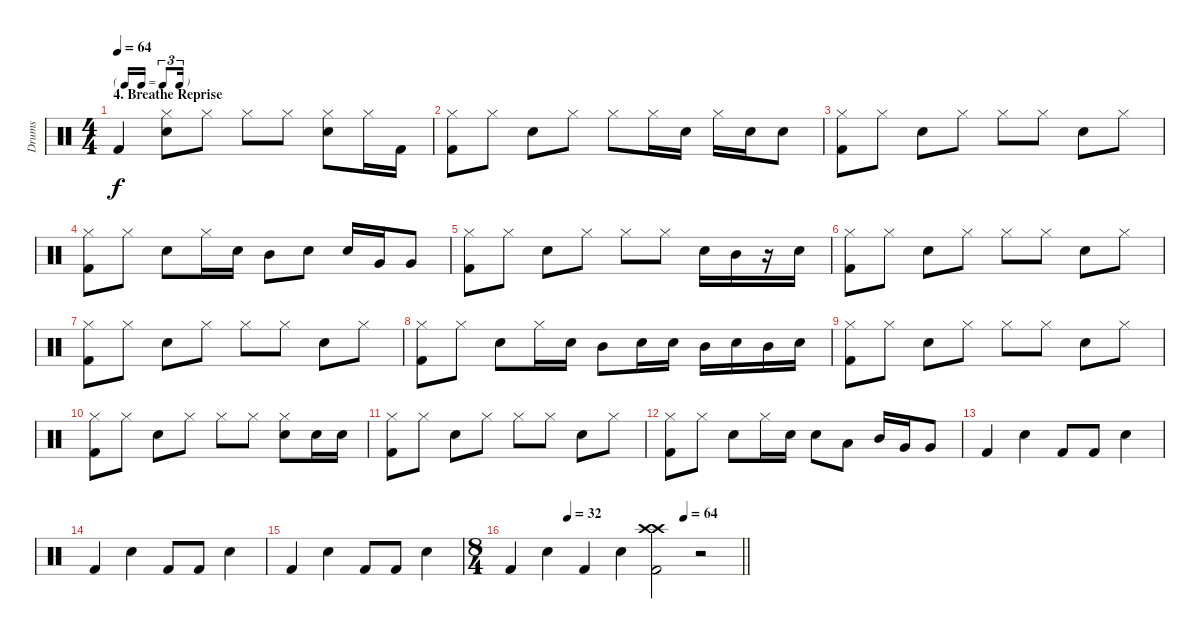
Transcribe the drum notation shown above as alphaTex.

\track ("Drums" "Drums") {instrument percussion}
\staff {score}
\articulation defaults
\ts (4 4)
\tf triplet16th
\section ("" "4. Breathe Reprise")
\tempo 64
\clef neutral
\ks c "Kick (hit) 2".4{dy f}
("Snare (hit) 2" "Hi-Hat (closed)").8 "Hi-Hat (closed)".8 "Hi-Hat (closed)".8 "Hi-Hat (closed)".8 ("Snare (hit) 2" "Hi-Hat (closed)").8 "Hi-Hat (closed)".16 "Kick (hit) 2".16 |
("Hi-Hat (closed)" "Kick (hit) 2").8 "Hi-Hat (closed)".8 "Snare (hit) 2".8 "Hi-Hat (closed)".8 "Hi-Hat (closed)".8 "Hi-Hat (closed)".16 "Snare (hit) 2".16 "Hi-Hat (closed)".16 "Snare (hit) 2".16 "Snare (hit) 2".8 |
("Hi-Hat (closed)" "Kick (hit) 2").8 "Hi-Hat (closed)".8 "Snare (hit) 2".8 "Hi-Hat (closed)".8 "Hi-Hat (closed)".8 "Hi-Hat (closed)".8 "Snare (hit) 2".8 "Hi-Hat (closed)".8 |
("Hi-Hat (closed)" "Kick (hit) 2").8 "Hi-Hat (closed)".8 "Snare (hit) 2".8 "Hi-Hat (closed)".16 "Snare (hit) 2".16 "Mid Tom (hit)".8 "Snare (hit) 2".8 "Snare (hit) 2".16 "Very Low Tom (hit)".16 "Very Low Tom (hit)".8 |
("Hi-Hat (closed)" "Kick (hit) 2").8 "Hi-Hat (closed)".8 "Snare (hit) 2".8 "Hi-Hat (closed)".8 "Hi-Hat (closed)".8 "Hi-Hat (closed)".8 "Snare (hit) 2".16 "Mid Tom (hit)".16 r.16 "Snare (hit) 2".16 |
("Hi-Hat (closed)" "Kick (hit) 2").8 "Hi-Hat (closed)".8 "Snare (hit) 2".8 "Hi-Hat (closed)".8 "Hi-Hat (closed)".8 "Hi-Hat (closed)".8 "Snare (hit) 2".8 "Hi-Hat (closed)".8 |
("Hi-Hat (closed)" "Kick (hit) 2").8 "Hi-Hat (closed)".8 "Snare (hit) 2".8 "Hi-Hat (closed)".8 "Hi-Hat (closed)".8 "Hi-Hat (closed)".8 "Snare (hit) 2".8 "Hi-Hat (closed)".8 |
("Hi-Hat (closed)" "Kick (hit) 2").8 "Hi-Hat (closed)".8 "Snare (hit) 2".8 "Hi-Hat (closed)".16 "Snare (hit) 2".16 "Mid Tom (hit)".8 "Snare (hit) 2".16 "Snare (hit) 2".16 "Mid Tom (hit)".16 "Snare (hit) 2".16 "Mid Tom (hit)".16 "Snare (hit) 2".16 |
("Hi-Hat (closed)" "Kick (hit) 2").8 "Hi-Hat (closed)".8 "Snare (hit) 2".8 "Hi-Hat (closed)".8 "Hi-Hat (closed)".8 "Hi-Hat (closed)".8 "Snare (hit) 2".8 "Hi-Hat (closed)".8 |
("Hi-Hat (closed)" "Kick (hit) 2").8 "Hi-Hat (closed)".8 "Snare (hit) 2".8 "Hi-Hat (closed)".8 "Hi-Hat (closed)".8 "Hi-Hat (closed)".8 ("Snare (hit) 2" "Hi-Hat (closed)").8 "Snare (hit) 2".16 "Snare (hit) 2".16 |
("Hi-Hat (closed)" "Kick (hit) 2").8 "Hi-Hat (closed)".8 "Snare (hit) 2".8 "Hi-Hat (closed)".8 "Hi-Hat (closed)".8 "Hi-Hat (closed)".8 "Snare (hit) 2".8 "Hi-Hat (closed)".8 |
("Hi-Hat (closed)" "Kick (hit) 2").8 "Hi-Hat (closed)".8 "Snare (hit) 2".8 "Hi-Hat (closed)".16 "Snare (hit) 2".16 "Snare (hit) 2".8 "Low Tom (hit)".8 "Mid Tom (hit)".16 "Very Low Tom (hit)".16 "Very Low Tom (hit)".8 |
"Kick (hit) 2".4 "Snare (hit) 2".4 "Kick (hit) 2".8 "Kick (hit) 2".8 "Snare (hit) 2".4 |
"Kick (hit) 2".4 "Snare (hit) 2".4 "Kick (hit) 2".8 "Kick (hit) 2".8 "Snare (hit) 2".4 |
"Kick (hit) 2".4 "Snare (hit) 2".4 "Kick (hit) 2".8 "Kick (hit) 2".8 "Snare (hit) 2".4 |
\ts (8 4)
\tempo (32 0.25)
\tempo (64 0.75)
\barLineRight lightlight "Kick (hit) 2".4 "Snare (hit) 2".4 "Kick (hit) 2".4 "Snare (hit) 2".4
("Crash high (hit)" "Crash high (hit)" "Kick (hit) 2").2 r.2
